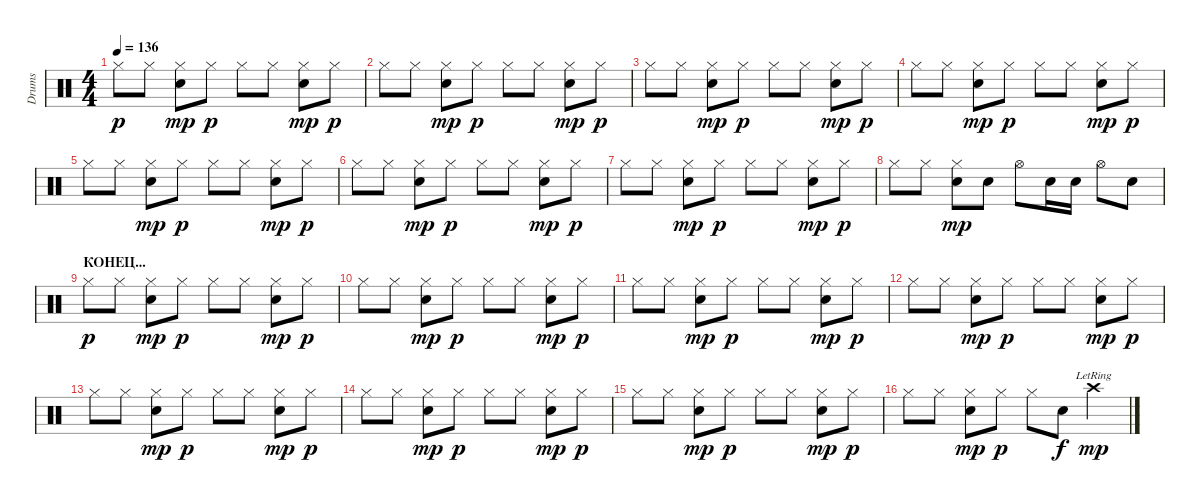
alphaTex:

\track ("Drums" "Drums") {instrument percussion}
\staff {score}
\articulation defaults
\ts (4 4)
\tempo 136
\clef neutral
\ks c "Hi-Hat (closed)".8{dy p} "Hi-Hat (closed)".8
("Hi-Hat (closed)" "Electric Snare (hit)").8{dy mp} "Hi-Hat (closed)".8{dy p} "Hi-Hat (closed)".8 "Hi-Hat (closed)".8 ("Hi-Hat (closed)" "Electric Snare (hit)").8{dy mp} "Hi-Hat (closed)".8{dy p} |
"Hi-Hat (closed)".8 "Hi-Hat (closed)".8 ("Hi-Hat (closed)" "Electric Snare (hit)").8{dy mp} "Hi-Hat (closed)".8{dy p} "Hi-Hat (closed)".8 "Hi-Hat (closed)".8 ("Hi-Hat (closed)" "Electric Snare (hit)").8{dy mp} "Hi-Hat (closed)".8{dy p} |
"Hi-Hat (closed)".8 "Hi-Hat (closed)".8 ("Hi-Hat (closed)" "Electric Snare (hit)").8{dy mp} "Hi-Hat (closed)".8{dy p} "Hi-Hat (closed)".8 "Hi-Hat (closed)".8 ("Hi-Hat (closed)" "Electric Snare (hit)").8{dy mp} "Hi-Hat (closed)".8{dy p} |
"Hi-Hat (closed)".8 "Hi-Hat (closed)".8 ("Hi-Hat (closed)" "Electric Snare (hit)").8{dy mp} "Hi-Hat (closed)".8{dy p} "Hi-Hat (closed)".8 "Hi-Hat (closed)".8 ("Hi-Hat (closed)" "Electric Snare (hit)").8{dy mp} "Hi-Hat (closed)".8{dy p} |
"Hi-Hat (closed)".8 "Hi-Hat (closed)".8 ("Hi-Hat (closed)" "Electric Snare (hit)").8{dy mp} "Hi-Hat (closed)".8{dy p} "Hi-Hat (closed)".8 "Hi-Hat (closed)".8 ("Hi-Hat (closed)" "Electric Snare (hit)").8{dy mp} "Hi-Hat (closed)".8{dy p} |
"Hi-Hat (closed)".8 "Hi-Hat (closed)".8 ("Hi-Hat (closed)" "Electric Snare (hit)").8{dy mp} "Hi-Hat (closed)".8{dy p} "Hi-Hat (closed)".8 "Hi-Hat (closed)".8 ("Hi-Hat (closed)" "Electric Snare (hit)").8{dy mp} "Hi-Hat (closed)".8{dy p} |
"Hi-Hat (closed)".8 "Hi-Hat (closed)".8 ("Hi-Hat (closed)" "Electric Snare (hit)").8{dy mp} "Hi-Hat (closed)".8{dy p} "Hi-Hat (closed)".8 "Hi-Hat (closed)".8 ("Hi-Hat (closed)" "Electric Snare (hit)").8{dy mp} "Hi-Hat (closed)".8{dy p} |
"Hi-Hat (closed)".8 "Hi-Hat (closed)".8 ("Hi-Hat (closed)" "Electric Snare (hit)").8{dy mp} "Electric Snare (hit)".8 "Hi-Hat (open)".8 "Electric Snare (hit)".16 "Electric Snare (hit)".16 "Hi-Hat (open)".8 "Electric Snare (hit)".8 |
\section ("" "КОНЕЦ...")
"Hi-Hat (closed)".8{dy p} "Hi-Hat (closed)".8 ("Hi-Hat (closed)" "Electric Snare (hit)").8{dy mp} "Hi-Hat (closed)".8{dy p} "Hi-Hat (closed)".8 "Hi-Hat (closed)".8 ("Hi-Hat (closed)" "Electric Snare (hit)").8{dy mp} "Hi-Hat (closed)".8{dy p} |
"Hi-Hat (closed)".8 "Hi-Hat (closed)".8 ("Hi-Hat (closed)" "Electric Snare (hit)").8{dy mp} "Hi-Hat (closed)".8{dy p} "Hi-Hat (closed)".8 "Hi-Hat (closed)".8 ("Hi-Hat (closed)" "Electric Snare (hit)").8{dy mp} "Hi-Hat (closed)".8{dy p} |
"Hi-Hat (closed)".8 "Hi-Hat (closed)".8 ("Hi-Hat (closed)" "Electric Snare (hit)").8{dy mp} "Hi-Hat (closed)".8{dy p} "Hi-Hat (closed)".8 "Hi-Hat (closed)".8 ("Hi-Hat (closed)" "Electric Snare (hit)").8{dy mp} "Hi-Hat (closed)".8{dy p} |
"Hi-Hat (closed)".8 "Hi-Hat (closed)".8 ("Hi-Hat (closed)" "Electric Snare (hit)").8{dy mp} "Hi-Hat (closed)".8{dy p} "Hi-Hat (closed)".8 "Hi-Hat (closed)".8 ("Hi-Hat (closed)" "Electric Snare (hit)").8{dy mp} "Hi-Hat (closed)".8{dy p} |
"Hi-Hat (closed)".8 "Hi-Hat (closed)".8 ("Hi-Hat (closed)" "Electric Snare (hit)").8{dy mp} "Hi-Hat (closed)".8{dy p} "Hi-Hat (closed)".8 "Hi-Hat (closed)".8 ("Hi-Hat (closed)" "Electric Snare (hit)").8{dy mp} "Hi-Hat (closed)".8{dy p} |
"Hi-Hat (closed)".8 "Hi-Hat (closed)".8 ("Hi-Hat (closed)" "Electric Snare (hit)").8{dy mp} "Hi-Hat (closed)".8{dy p} "Hi-Hat (closed)".8 "Hi-Hat (closed)".8 ("Hi-Hat (closed)" "Electric Snare (hit)").8{dy mp} "Hi-Hat (closed)".8{dy p} |
"Hi-Hat (closed)".8 "Hi-Hat (closed)".8 ("Hi-Hat (closed)" "Electric Snare (hit)").8{dy mp} "Hi-Hat (closed)".8{dy p} "Hi-Hat (closed)".8 "Hi-Hat (closed)".8 ("Hi-Hat (closed)" "Electric Snare (hit)").8{dy mp} "Hi-Hat (closed)".8{dy p} |
"Hi-Hat (closed)".8 "Hi-Hat (closed)".8 ("Hi-Hat (closed)" "Electric Snare (hit)").8{dy mp} "Hi-Hat (closed)".8{dy p} "Hi-Hat (closed)".8 "Electric Snare (hit)".8{dy f} "Crash high (hit)"{lr}.4{dy mp}
